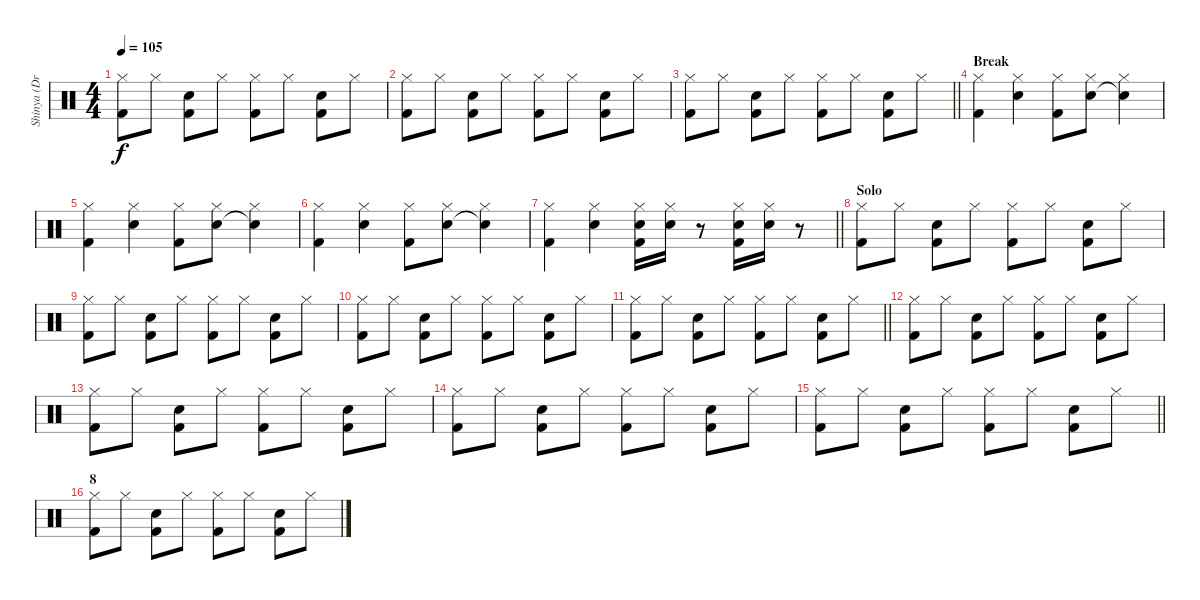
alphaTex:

\track ("Shinya (Drums)" "Shinya (Dr") {instrument percussion}
\staff {score}
\articulation defaults
\ts (4 4)
\tempo 105
\clef neutral
\ks c
("Hi-Hat (closed)" "Kick (hit) 2").8{dy f} "Hi-Hat (closed)".8 ("Snare (hit) 2" "Kick (hit) 2").8 "Hi-Hat (closed)".8 ("Hi-Hat (closed)" "Kick (hit) 2").8 "Hi-Hat (closed)".8 ("Snare (hit) 2" "Kick (hit) 2").8 "Hi-Hat (closed)".8 |
("Hi-Hat (closed)" "Kick (hit) 2").8 "Hi-Hat (closed)".8 ("Snare (hit) 2" "Kick (hit) 2").8 "Hi-Hat (closed)".8 ("Hi-Hat (closed)" "Kick (hit) 2").8 "Hi-Hat (closed)".8 ("Snare (hit) 2" "Kick (hit) 2").8 "Hi-Hat (closed)".8 |
\barLineRight lightlight
("Hi-Hat (closed)" "Kick (hit) 2").8 "Hi-Hat (closed)".8 ("Snare (hit) 2" "Kick (hit) 2").8 "Hi-Hat (closed)".8 ("Hi-Hat (closed)" "Kick (hit) 2").8 "Hi-Hat (closed)".8 ("Snare (hit) 2" "Kick (hit) 2").8 "Hi-Hat (closed)".8 |
\section ("" "Break")
("Hi-Hat (closed)" "Kick (hit) 2").4 ("Hi-Hat (closed)" "Snare (hit) 2").4 ("Hi-Hat (closed)" "Kick (hit) 2").8 ("Hi-Hat (closed)" "Snare (hit) 2").8 ("Hi-Hat (closed)" "Snare (hit)"{t}).4 |
("Hi-Hat (closed)" "Kick (hit) 2").4 ("Hi-Hat (closed)" "Snare (hit) 2").4 ("Hi-Hat (closed)" "Kick (hit) 2").8 ("Hi-Hat (closed)" "Snare (hit) 2").8 ("Hi-Hat (closed)" "Snare (hit)"{t}).4 |
("Hi-Hat (closed)" "Kick (hit) 2").4 ("Hi-Hat (closed)" "Snare (hit) 2").4 ("Hi-Hat (closed)" "Kick (hit) 2").8 ("Hi-Hat (closed)" "Snare (hit) 2").8 ("Hi-Hat (closed)" "Snare (hit)"{t}).4 |
\barLineRight lightlight
("Hi-Hat (closed)" "Kick (hit) 2").4 ("Hi-Hat (closed)" "Snare (hit) 2").4 ("Hi-Hat (closed)" "Snare (hit) 2" "Kick (hit) 2").16 ("Hi-Hat (closed)" "Snare (hit) 2").16 r.8 ("Hi-Hat (closed)" "Snare (hit) 2" "Kick (hit) 2").16 ("Hi-Hat (closed)" "Snare (hit) 2").16 r.8 |
\section ("" "Solo")
("Hi-Hat (closed)" "Kick (hit) 2").8 "Hi-Hat (closed)".8 ("Snare (hit) 2" "Kick (hit) 2").8 "Hi-Hat (closed)".8 ("Hi-Hat (closed)" "Kick (hit) 2").8 "Hi-Hat (closed)".8 ("Snare (hit) 2" "Kick (hit) 2").8 "Hi-Hat (closed)".8 |
("Hi-Hat (closed)" "Kick (hit) 2").8 "Hi-Hat (closed)".8 ("Snare (hit) 2" "Kick (hit) 2").8 "Hi-Hat (closed)".8 ("Hi-Hat (closed)" "Kick (hit) 2").8 "Hi-Hat (closed)".8 ("Snare (hit) 2" "Kick (hit) 2").8 "Hi-Hat (closed)".8 |
("Hi-Hat (closed)" "Kick (hit) 2").8 "Hi-Hat (closed)".8 ("Snare (hit) 2" "Kick (hit) 2").8 "Hi-Hat (closed)".8 ("Hi-Hat (closed)" "Kick (hit) 2").8 "Hi-Hat (closed)".8 ("Snare (hit) 2" "Kick (hit) 2").8 "Hi-Hat (closed)".8 |
\barLineRight lightlight
("Hi-Hat (closed)" "Kick (hit) 2").8 "Hi-Hat (closed)".8 ("Snare (hit) 2" "Kick (hit) 2").8 "Hi-Hat (closed)".8 ("Hi-Hat (closed)" "Kick (hit) 2").8 "Hi-Hat (closed)".8 ("Snare (hit) 2" "Kick (hit) 2").8 "Hi-Hat (closed)".8 |
("Hi-Hat (closed)" "Kick (hit) 2").8 "Hi-Hat (closed)".8 ("Snare (hit) 2" "Kick (hit) 2").8 "Hi-Hat (closed)".8 ("Hi-Hat (closed)" "Kick (hit) 2").8 "Hi-Hat (closed)".8 ("Snare (hit) 2" "Kick (hit) 2").8 "Hi-Hat (closed)".8 |
("Hi-Hat (closed)" "Kick (hit) 2").8 "Hi-Hat (closed)".8 ("Snare (hit) 2" "Kick (hit) 2").8 "Hi-Hat (closed)".8 ("Hi-Hat (closed)" "Kick (hit) 2").8 "Hi-Hat (closed)".8 ("Snare (hit) 2" "Kick (hit) 2").8 "Hi-Hat (closed)".8 |
("Hi-Hat (closed)" "Kick (hit) 2").8 "Hi-Hat (closed)".8 ("Snare (hit) 2" "Kick (hit) 2").8 "Hi-Hat (closed)".8 ("Hi-Hat (closed)" "Kick (hit) 2").8 "Hi-Hat (closed)".8 ("Snare (hit) 2" "Kick (hit) 2").8 "Hi-Hat (closed)".8 |
\barLineRight lightlight
("Hi-Hat (closed)" "Kick (hit) 2").8 "Hi-Hat (closed)".8 ("Snare (hit) 2" "Kick (hit) 2").8 "Hi-Hat (closed)".8 ("Hi-Hat (closed)" "Kick (hit) 2").8 "Hi-Hat (closed)".8 ("Snare (hit) 2" "Kick (hit) 2").8 "Hi-Hat (closed)".8 |
\section ("" "8")
("Hi-Hat (closed)" "Kick (hit) 2").8 "Hi-Hat (closed)".8 ("Snare (hit) 2" "Kick (hit) 2").8 "Hi-Hat (closed)".8 ("Hi-Hat (closed)" "Kick (hit) 2").8 "Hi-Hat (closed)".8 ("Snare (hit) 2" "Kick (hit) 2").8 "Hi-Hat (closed)".8
